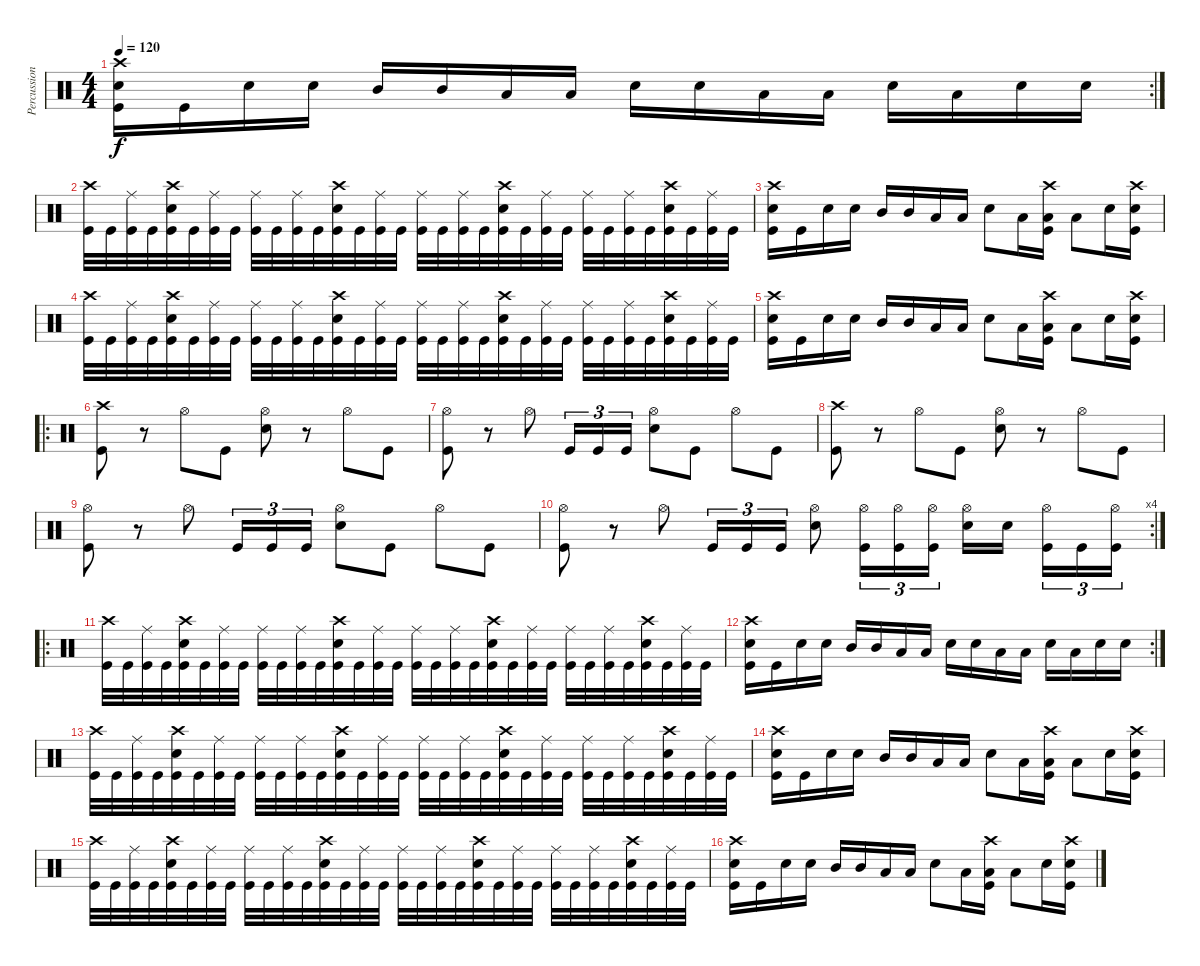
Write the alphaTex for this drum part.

\track ("Percussions" "Percussion") {instrument percussion}
\staff {score}
\articulation defaults
\rc 2
\ts (4 4)
\tempo 120
\clef neutral
\ks c
("Crash high (hit)" "Electric Snare (hit)" "Kick (hit)").16{dy f} "Kick (hit)".16 "Electric Snare (hit)".16 "Electric Snare (hit)".16 "Mid Tom (hit)".16 "Mid Tom (hit)".16 "Low Tom (hit)".16 "Low Tom (hit)".16 "Electric Snare (hit)".16 "Electric Snare (hit)".16 "Low Tom (hit)".16 "Low Tom (hit)".16 "Electric Snare (hit)".16 "Low Tom (hit)".16 "Electric Snare (hit)".16 "Electric Snare (hit)".16 |
("Crash high (hit)" "Kick (hit)").32 "Kick (hit)".32 ("Ride (middle)" "Kick (hit)").32 "Kick (hit)".32 ("Crash high (hit)" "Electric Snare (hit)" "Kick (hit)").32 "Kick (hit)".32 ("Ride (middle)" "Kick (hit)").32 "Kick (hit)".32 ("Ride (middle)" "Kick (hit)").32 "Kick (hit)".32 ("Ride (middle)" "Kick (hit)").32 "Kick (hit)".32 ("Crash high (hit)" "Electric Snare (hit)" "Kick (hit)").32 "Kick (hit)".32 ("Ride (middle)" "Kick (hit)").32 "Kick (hit)".32 ("Ride (middle)" "Kick (hit)").32 "Kick (hit)".32 ("Ride (middle)" "Kick (hit)").32 "Kick (hit)".32 ("Crash high (hit)" "Electric Snare (hit)" "Kick (hit)").32 "Kick (hit)".32 ("Ride (middle)" "Kick (hit)").32 "Kick (hit)".32 ("Ride (middle)" "Kick (hit)").32 "Kick (hit)".32 ("Ride (middle)" "Kick (hit)").32 "Kick (hit)".32 ("Crash high (hit)" "Electric Snare (hit)" "Kick (hit)").32 "Kick (hit)".32 ("Ride (middle)" "Kick (hit)").32 "Kick (hit)".32 |
("Crash high (hit)" "Electric Snare (hit)" "Kick (hit)").16 "Kick (hit)".16 "Electric Snare (hit)".16 "Electric Snare (hit)".16 "Mid Tom (hit)".16 "Mid Tom (hit)".16 "Low Tom (hit)".16 "Low Tom (hit)".16 "Electric Snare (hit)".8 "Low Tom (hit)".16 ("Crash high (hit)" "Low Tom (hit)" "Kick (hit)").16 "Low Tom (hit)".8 "Electric Snare (hit)".16 ("Crash high (hit)" "Electric Snare (hit)" "Kick (hit)").16 |
("Crash high (hit)" "Kick (hit)").32 "Kick (hit)".32 ("Ride (middle)" "Kick (hit)").32 "Kick (hit)".32 ("Crash high (hit)" "Electric Snare (hit)" "Kick (hit)").32 "Kick (hit)".32 ("Ride (middle)" "Kick (hit)").32 "Kick (hit)".32 ("Ride (middle)" "Kick (hit)").32 "Kick (hit)".32 ("Ride (middle)" "Kick (hit)").32 "Kick (hit)".32 ("Crash high (hit)" "Electric Snare (hit)" "Kick (hit)").32 "Kick (hit)".32 ("Ride (middle)" "Kick (hit)").32 "Kick (hit)".32 ("Ride (middle)" "Kick (hit)").32 "Kick (hit)".32 ("Ride (middle)" "Kick (hit)").32 "Kick (hit)".32 ("Crash high (hit)" "Electric Snare (hit)" "Kick (hit)").32 "Kick (hit)".32 ("Ride (middle)" "Kick (hit)").32 "Kick (hit)".32 ("Ride (middle)" "Kick (hit)").32 "Kick (hit)".32 ("Ride (middle)" "Kick (hit)").32 "Kick (hit)".32 ("Crash high (hit)" "Electric Snare (hit)" "Kick (hit)").32 "Kick (hit)".32 ("Ride (middle)" "Kick (hit)").32 "Kick (hit)".32 |
("Crash high (hit)" "Electric Snare (hit)" "Kick (hit)").16 "Kick (hit)".16 "Electric Snare (hit)".16 "Electric Snare (hit)".16 "Mid Tom (hit)".16 "Mid Tom (hit)".16 "Low Tom (hit)".16 "Low Tom (hit)".16 "Electric Snare (hit)".8 "Low Tom (hit)".16 ("Crash high (hit)" "Low Tom (hit)" "Kick (hit)").16 "Low Tom (hit)".8 "Electric Snare (hit)".16 ("Crash high (hit)" "Electric Snare (hit)" "Kick (hit)").16 |
\ro
("Crash high (hit)" "Kick (hit)").8 r.8 "Hi-Hat (open)".8 "Kick (hit)".8 ("Hi-Hat (open)" "Electric Snare (hit)").8 r.8 "Hi-Hat (open)".8 "Kick (hit)".8 |
("Hi-Hat (open)" "Kick (hit)").8 r.8 "Hi-Hat (open)".8 "Kick (hit)".16{tu (3 2)} "Kick (hit)".16{tu (3 2)} "Kick (hit)".16{tu (3 2)} ("Hi-Hat (open)" "Electric Snare (hit)").8 "Kick (hit)".8 "Hi-Hat (open)".8 "Kick (hit)".8 |
("Crash high (hit)" "Kick (hit)").8 r.8 "Hi-Hat (open)".8 "Kick (hit)".8 ("Hi-Hat (open)" "Electric Snare (hit)").8 r.8 "Hi-Hat (open)".8 "Kick (hit)".8 |
("Hi-Hat (open)" "Kick (hit)").8 r.8 "Hi-Hat (open)".8 "Kick (hit)".16{tu (3 2)} "Kick (hit)".16{tu (3 2)} "Kick (hit)".16{tu (3 2)} ("Hi-Hat (open)" "Electric Snare (hit)").8 "Kick (hit)".8 "Hi-Hat (open)".8 "Kick (hit)".8 |
\rc 4
("Hi-Hat (open)" "Kick (hit)").8 r.8 "Hi-Hat (open)".8 "Kick (hit)".16{tu (3 2)} "Kick (hit)".16{tu (3 2)} "Kick (hit)".16{tu (3 2)} ("Hi-Hat (open)" "Electric Snare (hit)").8 ("Hi-Hat (open)" "Kick (hit)").16{tu (3 2)} ("Hi-Hat (open)" "Kick (hit)").16{tu (3 2)} ("Hi-Hat (open)" "Kick (hit)").16{tu (3 2)} ("Hi-Hat (open)" "Electric Snare (hit)").16 "Electric Snare (hit)".16 ("Hi-Hat (open)" "Kick (hit)").16{tu (3 2)} "Kick (hit)".16{tu (3 2)} ("Hi-Hat (open)" "Kick (hit)").16{tu (3 2)} |
\ro
("Crash high (hit)" "Kick (hit)").32 "Kick (hit)".32 ("Ride (middle)" "Kick (hit)").32 "Kick (hit)".32 ("Crash high (hit)" "Electric Snare (hit)" "Kick (hit)").32 "Kick (hit)".32 ("Ride (middle)" "Kick (hit)").32 "Kick (hit)".32 ("Ride (middle)" "Kick (hit)").32 "Kick (hit)".32 ("Ride (middle)" "Kick (hit)").32 "Kick (hit)".32 ("Crash high (hit)" "Electric Snare (hit)" "Kick (hit)").32 "Kick (hit)".32 ("Ride (middle)" "Kick (hit)").32 "Kick (hit)".32 ("Ride (middle)" "Kick (hit)").32 "Kick (hit)".32 ("Ride (middle)" "Kick (hit)").32 "Kick (hit)".32 ("Crash high (hit)" "Electric Snare (hit)" "Kick (hit)").32 "Kick (hit)".32 ("Ride (middle)" "Kick (hit)").32 "Kick (hit)".32 ("Ride (middle)" "Kick (hit)").32 "Kick (hit)".32 ("Ride (middle)" "Kick (hit)").32 "Kick (hit)".32 ("Crash high (hit)" "Electric Snare (hit)" "Kick (hit)").32 "Kick (hit)".32 ("Ride (middle)" "Kick (hit)").32 "Kick (hit)".32 |
\rc 2
("Crash high (hit)" "Electric Snare (hit)" "Kick (hit)").16 "Kick (hit)".16 "Electric Snare (hit)".16 "Electric Snare (hit)".16 "Mid Tom (hit)".16 "Mid Tom (hit)".16 "Low Tom (hit)".16 "Low Tom (hit)".16 "Electric Snare (hit)".16 "Electric Snare (hit)".16 "Low Tom (hit)".16 "Low Tom (hit)".16 "Electric Snare (hit)".16 "Low Tom (hit)".16 "Electric Snare (hit)".16 "Electric Snare (hit)".16 |
("Crash high (hit)" "Kick (hit)").32 "Kick (hit)".32 ("Ride (middle)" "Kick (hit)").32 "Kick (hit)".32 ("Crash high (hit)" "Electric Snare (hit)" "Kick (hit)").32 "Kick (hit)".32 ("Ride (middle)" "Kick (hit)").32 "Kick (hit)".32 ("Ride (middle)" "Kick (hit)").32 "Kick (hit)".32 ("Ride (middle)" "Kick (hit)").32 "Kick (hit)".32 ("Crash high (hit)" "Electric Snare (hit)" "Kick (hit)").32 "Kick (hit)".32 ("Ride (middle)" "Kick (hit)").32 "Kick (hit)".32 ("Ride (middle)" "Kick (hit)").32 "Kick (hit)".32 ("Ride (middle)" "Kick (hit)").32 "Kick (hit)".32 ("Crash high (hit)" "Electric Snare (hit)" "Kick (hit)").32 "Kick (hit)".32 ("Ride (middle)" "Kick (hit)").32 "Kick (hit)".32 ("Ride (middle)" "Kick (hit)").32 "Kick (hit)".32 ("Ride (middle)" "Kick (hit)").32 "Kick (hit)".32 ("Crash high (hit)" "Electric Snare (hit)" "Kick (hit)").32 "Kick (hit)".32 ("Ride (middle)" "Kick (hit)").32 "Kick (hit)".32 |
("Crash high (hit)" "Electric Snare (hit)" "Kick (hit)").16 "Kick (hit)".16 "Electric Snare (hit)".16 "Electric Snare (hit)".16 "Mid Tom (hit)".16 "Mid Tom (hit)".16 "Low Tom (hit)".16 "Low Tom (hit)".16 "Electric Snare (hit)".8 "Low Tom (hit)".16 ("Crash high (hit)" "Low Tom (hit)" "Kick (hit)").16 "Low Tom (hit)".8 "Electric Snare (hit)".16 ("Crash high (hit)" "Electric Snare (hit)" "Kick (hit)").16 |
("Crash high (hit)" "Kick (hit)").32 "Kick (hit)".32 ("Ride (middle)" "Kick (hit)").32 "Kick (hit)".32 ("Crash high (hit)" "Electric Snare (hit)" "Kick (hit)").32 "Kick (hit)".32 ("Ride (middle)" "Kick (hit)").32 "Kick (hit)".32 ("Ride (middle)" "Kick (hit)").32 "Kick (hit)".32 ("Ride (middle)" "Kick (hit)").32 "Kick (hit)".32 ("Crash high (hit)" "Electric Snare (hit)" "Kick (hit)").32 "Kick (hit)".32 ("Ride (middle)" "Kick (hit)").32 "Kick (hit)".32 ("Ride (middle)" "Kick (hit)").32 "Kick (hit)".32 ("Ride (middle)" "Kick (hit)").32 "Kick (hit)".32 ("Crash high (hit)" "Electric Snare (hit)" "Kick (hit)").32 "Kick (hit)".32 ("Ride (middle)" "Kick (hit)").32 "Kick (hit)".32 ("Ride (middle)" "Kick (hit)").32 "Kick (hit)".32 ("Ride (middle)" "Kick (hit)").32 "Kick (hit)".32 ("Crash high (hit)" "Electric Snare (hit)" "Kick (hit)").32 "Kick (hit)".32 ("Ride (middle)" "Kick (hit)").32 "Kick (hit)".32 |
("Crash high (hit)" "Electric Snare (hit)" "Kick (hit)").16 "Kick (hit)".16 "Electric Snare (hit)".16 "Electric Snare (hit)".16 "Mid Tom (hit)".16 "Mid Tom (hit)".16 "Low Tom (hit)".16 "Low Tom (hit)".16 "Electric Snare (hit)".8 "Low Tom (hit)".16 ("Crash high (hit)" "Low Tom (hit)" "Kick (hit)").16 "Low Tom (hit)".8 "Electric Snare (hit)".16 ("Crash high (hit)" "Electric Snare (hit)" "Kick (hit)").16
